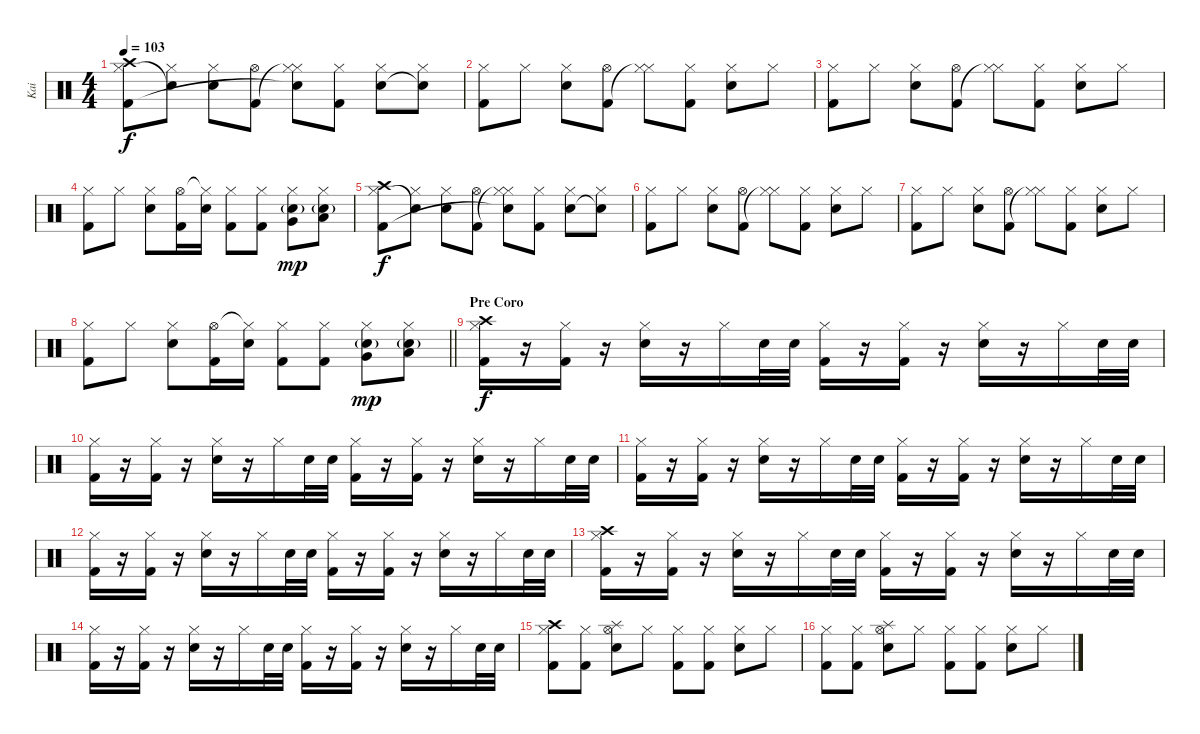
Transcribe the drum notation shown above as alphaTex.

\track ("Kai" "Kai") {instrument percussion}
\staff {score}
\articulation defaults
\ts (4 4)
\tempo 103
\clef neutral
\ks c
("Crash high (hit)" "Hi-Hat (closed)" "Kick (hit) 2").8{dy f} ("Hi-Hat (closed)" "Snare (hit)"{t}).8 ("Hi-Hat (closed)" "Electric Snare (hit)").8 ("Hi-Hat (open)" "Kick (hit) 2").8 ("Hi-Hat (closed)" "Hi-Hat (closed)"{t} "Snare (hit)"{t}).8 ("Hi-Hat (closed)" "Kick (hit) 2").8 ("Hi-Hat (closed)" "Electric Snare (hit)").8 ("Hi-Hat (closed)" "Snare (hit)"{t}).8 |
("Hi-Hat (closed)" "Kick (hit) 2").8 "Hi-Hat (closed)".8 ("Hi-Hat (closed)" "Electric Snare (hit)").8 ("Hi-Hat (open)" "Kick (hit) 2").8 ("Hi-Hat (closed)" "Hi-Hat (closed)"{t}).8 ("Hi-Hat (closed)" "Kick (hit) 2").8 ("Hi-Hat (closed)" "Electric Snare (hit)").8 "Hi-Hat (closed)".8 |
("Hi-Hat (closed)" "Kick (hit) 2").8 "Hi-Hat (closed)".8 ("Hi-Hat (closed)" "Electric Snare (hit)").8 ("Hi-Hat (open)" "Kick (hit) 2").8 ("Hi-Hat (closed)" "Hi-Hat (closed)"{t}).8 ("Hi-Hat (closed)" "Kick (hit) 2").8 ("Hi-Hat (closed)" "Electric Snare (hit)").8 "Hi-Hat (closed)".8 |
("Hi-Hat (closed)" "Kick (hit) 2").8 "Hi-Hat (closed)".8 ("Hi-Hat (closed)" "Electric Snare (hit)").8 ("Hi-Hat (open)" "Kick (hit) 2").16 ("Hi-Hat (closed)"{t} "Electric Snare (hit)").16 ("Hi-Hat (closed)" "Kick (hit) 2").8 ("Hi-Hat (closed)" "Kick (hit) 2").8 ("Electric Snare (hit)"{g} "Hi-Hat (closed)" "Very Low Tom (hit)").8{dy mp} ("Electric Snare (hit)"{g} "Hi-Hat (closed)" "Low Floor Tom (hit)").8 |
("Crash high (hit)" "Hi-Hat (closed)" "Kick (hit) 2").8{dy f} ("Hi-Hat (closed)" "Snare (hit)"{t}).8 ("Hi-Hat (closed)" "Electric Snare (hit)").8 ("Hi-Hat (open)" "Kick (hit) 2").8 ("Hi-Hat (closed)" "Hi-Hat (closed)"{t} "Snare (hit)"{t}).8 ("Hi-Hat (closed)" "Kick (hit) 2").8 ("Hi-Hat (closed)" "Electric Snare (hit)").8 ("Hi-Hat (closed)" "Snare (hit)"{t}).8 |
("Hi-Hat (closed)" "Kick (hit) 2").8 "Hi-Hat (closed)".8 ("Hi-Hat (closed)" "Electric Snare (hit)").8 ("Hi-Hat (open)" "Kick (hit) 2").8 ("Hi-Hat (closed)" "Hi-Hat (closed)"{t}).8 ("Hi-Hat (closed)" "Kick (hit) 2").8 ("Hi-Hat (closed)" "Electric Snare (hit)").8 "Hi-Hat (closed)".8 |
("Hi-Hat (closed)" "Kick (hit) 2").8 "Hi-Hat (closed)".8 ("Hi-Hat (closed)" "Electric Snare (hit)").8 ("Hi-Hat (open)" "Kick (hit) 2").8 ("Hi-Hat (closed)" "Hi-Hat (closed)"{t}).8 ("Hi-Hat (closed)" "Kick (hit) 2").8 ("Hi-Hat (closed)" "Electric Snare (hit)").8 "Hi-Hat (closed)".8 |
\barLineRight lightlight
("Hi-Hat (closed)" "Kick (hit) 2").8 "Hi-Hat (closed)".8 ("Hi-Hat (closed)" "Electric Snare (hit)").8 ("Hi-Hat (open)" "Kick (hit) 2").16 ("Hi-Hat (closed)"{t} "Electric Snare (hit)").16 ("Hi-Hat (closed)" "Kick (hit) 2").8 ("Hi-Hat (closed)" "Kick (hit) 2").8 ("Electric Snare (hit)"{g} "Hi-Hat (closed)" "Very Low Tom (hit)").8{dy mp} ("Electric Snare (hit)"{g} "Hi-Hat (closed)" "Low Floor Tom (hit)").8 |
\section ("" "Pre Coro")
("Crash high (hit)" "Hi-Hat (closed)" "Kick (hit) 2").16{dy f} r.16 ("Hi-Hat (closed)" "Kick (hit) 2").16 r.16 ("Hi-Hat (closed)" "Electric Snare (hit)").16 r.16 "Hi-Hat (closed)".16 "Electric Snare (hit)".32 "Electric Snare (hit)".32 ("Hi-Hat (closed)" "Kick (hit) 2").16 r.16 ("Hi-Hat (closed)" "Kick (hit) 2").16 r.16 ("Hi-Hat (closed)" "Electric Snare (hit)").16 r.16 "Hi-Hat (closed)".16 "Electric Snare (hit)".32 "Electric Snare (hit)".32 |
("Hi-Hat (closed)" "Kick (hit) 2").16 r.16 ("Hi-Hat (closed)" "Kick (hit) 2").16 r.16 ("Hi-Hat (closed)" "Electric Snare (hit)").16 r.16 "Hi-Hat (closed)".16 "Electric Snare (hit)".32 "Electric Snare (hit)".32 ("Hi-Hat (closed)" "Kick (hit) 2").16 r.16 ("Hi-Hat (closed)" "Kick (hit) 2").16 r.16 ("Hi-Hat (closed)" "Electric Snare (hit)").16 r.16 "Hi-Hat (closed)".16 "Electric Snare (hit)".32 "Electric Snare (hit)".32 |
("Hi-Hat (closed)" "Kick (hit) 2").16 r.16 ("Hi-Hat (closed)" "Kick (hit) 2").16 r.16 ("Hi-Hat (closed)" "Electric Snare (hit)").16 r.16 "Hi-Hat (closed)".16 "Electric Snare (hit)".32 "Electric Snare (hit)".32 ("Hi-Hat (closed)" "Kick (hit) 2").16 r.16 ("Hi-Hat (closed)" "Kick (hit) 2").16 r.16 ("Hi-Hat (closed)" "Electric Snare (hit)").16 r.16 "Hi-Hat (closed)".16 "Electric Snare (hit)".32 "Electric Snare (hit)".32 |
("Hi-Hat (closed)" "Kick (hit) 2").16 r.16 ("Hi-Hat (closed)" "Kick (hit) 2").16 r.16 ("Hi-Hat (closed)" "Electric Snare (hit)").16 r.16 "Hi-Hat (closed)".16 "Electric Snare (hit)".32 "Electric Snare (hit)".32 ("Hi-Hat (closed)" "Kick (hit) 2").16 r.16 ("Hi-Hat (closed)" "Kick (hit) 2").16 r.16 ("Hi-Hat (closed)" "Electric Snare (hit)").16 r.16 "Hi-Hat (closed)".16 "Electric Snare (hit)".32 "Electric Snare (hit)".32 |
("Crash high (hit)" "Hi-Hat (closed)" "Kick (hit) 2").16 r.16 ("Hi-Hat (closed)" "Kick (hit) 2").16 r.16 ("Hi-Hat (closed)" "Electric Snare (hit)").16 r.16 "Hi-Hat (closed)".16 "Electric Snare (hit)".32 "Electric Snare (hit)".32 ("Hi-Hat (closed)" "Kick (hit) 2").16 r.16 ("Hi-Hat (closed)" "Kick (hit) 2").16 r.16 ("Hi-Hat (closed)" "Electric Snare (hit)").16 r.16 "Hi-Hat (closed)".16 "Electric Snare (hit)".32 "Electric Snare (hit)".32 |
("Hi-Hat (closed)" "Kick (hit) 2").16 r.16 ("Hi-Hat (closed)" "Kick (hit) 2").16 r.16 ("Hi-Hat (closed)" "Electric Snare (hit)").16 r.16 "Hi-Hat (closed)".16 "Electric Snare (hit)".32 "Electric Snare (hit)".32 ("Hi-Hat (closed)" "Kick (hit) 2").16 r.16 ("Hi-Hat (closed)" "Kick (hit) 2").16 r.16 ("Hi-Hat (closed)" "Electric Snare (hit)").16 r.16 "Hi-Hat (closed)".16 "Electric Snare (hit)".32 "Electric Snare (hit)".32 |
("Crash high (hit)" "Hi-Hat (closed)" "Kick (hit) 2").8 ("Hi-Hat (closed)" "Kick (hit) 2").8 ("Splash (hit)" "Hi-Hat (open)" "Electric Snare (hit)").8 "Hi-Hat (closed)".8 ("Hi-Hat (closed)" "Kick (hit) 2").8 ("Hi-Hat (closed)" "Kick (hit) 2").8 ("Hi-Hat (closed)" "Electric Snare (hit)").8 "Hi-Hat (closed)".8 |
("Hi-Hat (closed)" "Kick (hit) 2").8 ("Hi-Hat (closed)" "Kick (hit) 2").8 ("Splash (hit)" "Hi-Hat (open)" "Electric Snare (hit)").8 "Hi-Hat (closed)".8 ("Hi-Hat (closed)" "Kick (hit) 2").8 ("Hi-Hat (closed)" "Kick (hit) 2").8 ("Hi-Hat (closed)" "Electric Snare (hit)").8 "Hi-Hat (closed)".8
